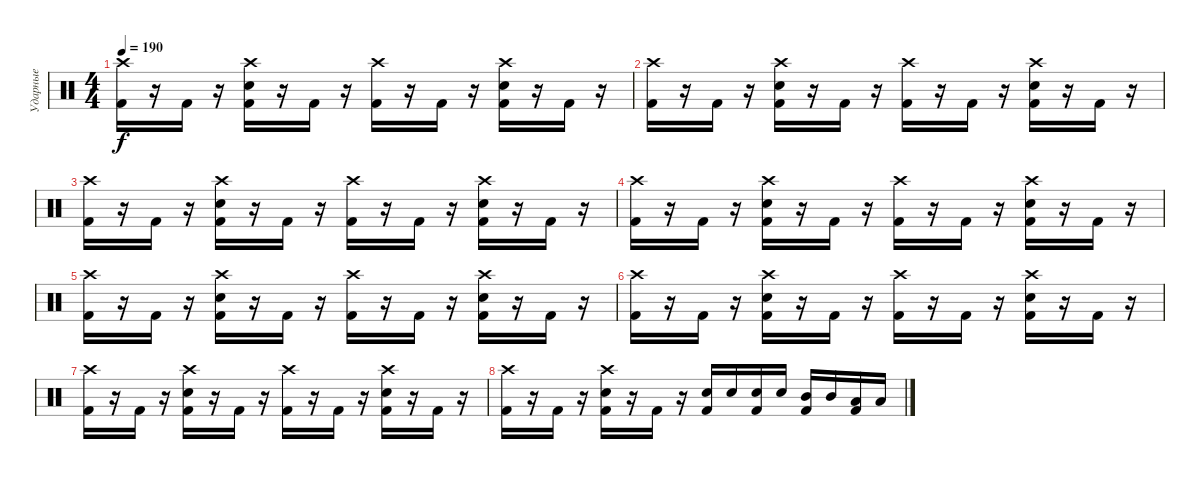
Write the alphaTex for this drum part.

\track ("Ударные" "Ударные") {instrument percussion}
\staff {score}
\articulation defaults
\ts (4 4)
\tempo 190
\clef neutral
\ks c
("Crash high (hit)" "Kick (hit) 2").16{dy f} r.16 "Kick (hit) 2".16 r.16 ("Crash high (hit)" "Electric Snare (hit)" "Kick (hit) 2").16 r.16 "Kick (hit) 2".16 r.16 ("Crash high (hit)" "Kick (hit) 2").16 r.16 "Kick (hit) 2".16 r.16 ("Crash high (hit)" "Electric Snare (hit)" "Kick (hit) 2").16 r.16 "Kick (hit) 2".16 r.16 |
("Crash high (hit)" "Kick (hit) 2").16 r.16 "Kick (hit) 2".16 r.16 ("Crash high (hit)" "Electric Snare (hit)" "Kick (hit) 2").16 r.16 "Kick (hit) 2".16 r.16 ("Crash high (hit)" "Kick (hit) 2").16 r.16 "Kick (hit) 2".16 r.16 ("Crash high (hit)" "Electric Snare (hit)" "Kick (hit) 2").16 r.16 "Kick (hit) 2".16 r.16 |
("Crash high (hit)" "Kick (hit) 2").16 r.16 "Kick (hit) 2".16 r.16 ("Crash high (hit)" "Electric Snare (hit)" "Kick (hit) 2").16 r.16 "Kick (hit) 2".16 r.16 ("Crash high (hit)" "Kick (hit) 2").16 r.16 "Kick (hit) 2".16 r.16 ("Crash high (hit)" "Electric Snare (hit)" "Kick (hit) 2").16 r.16 "Kick (hit) 2".16 r.16 |
("Crash high (hit)" "Kick (hit) 2").16 r.16 "Kick (hit) 2".16 r.16 ("Crash high (hit)" "Electric Snare (hit)" "Kick (hit) 2").16 r.16 "Kick (hit) 2".16 r.16 ("Crash high (hit)" "Kick (hit) 2").16 r.16 "Kick (hit) 2".16 r.16 ("Crash high (hit)" "Electric Snare (hit)" "Kick (hit) 2").16 r.16 "Kick (hit) 2".16 r.16 |
("Crash high (hit)" "Kick (hit) 2").16 r.16 "Kick (hit) 2".16 r.16 ("Crash high (hit)" "Electric Snare (hit)" "Kick (hit) 2").16 r.16 "Kick (hit) 2".16 r.16 ("Crash high (hit)" "Kick (hit) 2").16 r.16 "Kick (hit) 2".16 r.16 ("Crash high (hit)" "Electric Snare (hit)" "Kick (hit) 2").16 r.16 "Kick (hit) 2".16 r.16 |
("Crash high (hit)" "Kick (hit) 2").16 r.16 "Kick (hit) 2".16 r.16 ("Crash high (hit)" "Electric Snare (hit)" "Kick (hit) 2").16 r.16 "Kick (hit) 2".16 r.16 ("Crash high (hit)" "Kick (hit) 2").16 r.16 "Kick (hit) 2".16 r.16 ("Crash high (hit)" "Electric Snare (hit)" "Kick (hit) 2").16 r.16 "Kick (hit) 2".16 r.16 |
("Crash high (hit)" "Kick (hit) 2").16 r.16 "Kick (hit) 2".16 r.16 ("Crash high (hit)" "Electric Snare (hit)" "Kick (hit) 2").16 r.16 "Kick (hit) 2".16 r.16 ("Crash high (hit)" "Kick (hit) 2").16 r.16 "Kick (hit) 2".16 r.16 ("Crash high (hit)" "Electric Snare (hit)" "Kick (hit) 2").16 r.16 "Kick (hit) 2".16 r.16 |
("Crash high (hit)" "Kick (hit) 2").16 r.16 "Kick (hit) 2".16 r.16 ("Crash high (hit)" "Electric Snare (hit)" "Kick (hit) 2").16 r.16 "Kick (hit) 2".16 r.16 ("Electric Snare (hit)" "Kick (hit) 2").16 "Electric Snare (hit)".16 ("Electric Snare (hit)" "Kick (hit) 2").16 "Electric Snare (hit)".16 ("Mid Tom (hit)" "Kick (hit) 2").16 "Mid Tom (hit)".16 ("Low Floor Tom (hit)" "Kick (hit) 2").16 "Low Floor Tom (hit)".16
